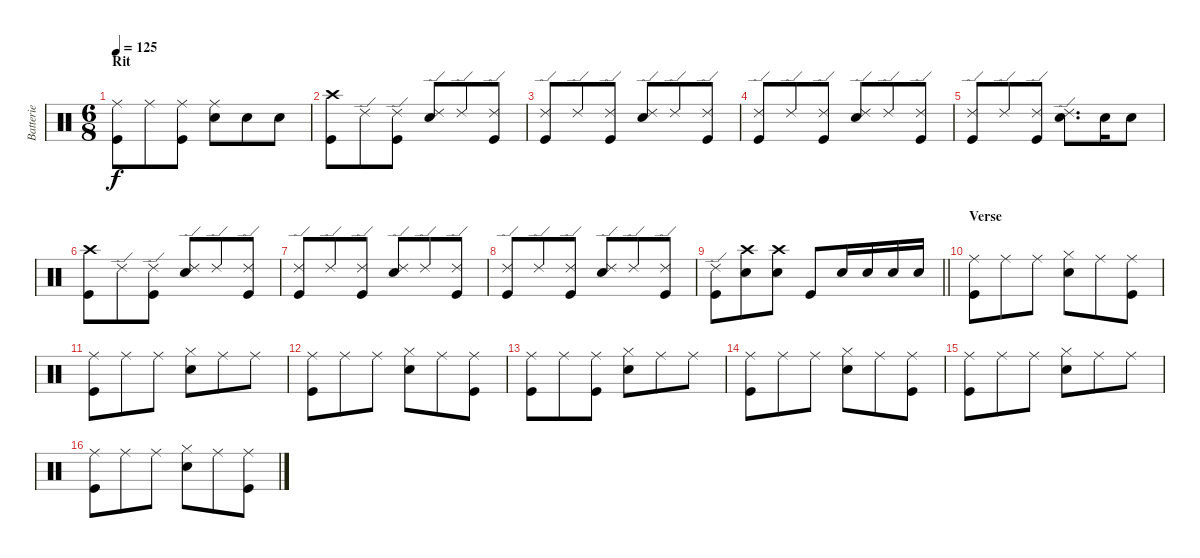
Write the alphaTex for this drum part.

\track ("Batterie" "Batterie") {instrument percussion}
\staff {score}
\articulation defaults
\ts (6 8)
\section ("" "Rit")
\tempo 125
\clef neutral
\ks c
("Ride (middle)" "Kick (hit)").8{dy f} "Ride (middle)".8 ("Ride (middle)" "Kick (hit)").8 ("Ride (middle)" "Snare (hit) 2").8 "Snare (hit) 2".8 "Snare (hit) 2".8 |
("Crash high (hit)" "Kick (hit)").8 "Ride (edge) 2".8 ("Ride (edge) 2" "Kick (hit)").8 ("Ride (edge) 2" "Snare (hit) 2").8 "Ride (edge) 2".8 ("Ride (edge) 2" "Kick (hit)").8 |
("Ride (edge) 2" "Kick (hit)").8 "Ride (edge) 2".8 ("Ride (edge) 2" "Kick (hit)").8 ("Ride (edge) 2" "Snare (hit) 2").8 "Ride (edge) 2".8 ("Ride (edge) 2" "Kick (hit)").8 |
("Ride (edge) 2" "Kick (hit)").8 "Ride (edge) 2".8 ("Ride (edge) 2" "Kick (hit)").8 ("Ride (edge) 2" "Snare (hit) 2").8 "Ride (edge) 2".8 ("Ride (edge) 2" "Kick (hit)").8 |
("Ride (edge) 2" "Kick (hit)").8 "Ride (edge) 2".8 ("Ride (edge) 2" "Kick (hit)").8 ("Ride (edge) 2" "Snare (hit) 2").8{d} "Snare (hit) 2".16 "Snare (hit) 2".8 |
("Crash high (hit)" "Kick (hit)").8 "Ride (edge) 2".8 ("Ride (edge) 2" "Kick (hit)").8 ("Ride (edge) 2" "Snare (hit) 2").8 "Ride (edge) 2".8 ("Ride (edge) 2" "Kick (hit)").8 |
("Ride (edge) 2" "Kick (hit)").8 "Ride (edge) 2".8 ("Ride (edge) 2" "Kick (hit)").8 ("Ride (edge) 2" "Snare (hit) 2").8 "Ride (edge) 2".8 ("Ride (edge) 2" "Kick (hit)").8 |
("Ride (edge) 2" "Kick (hit)").8 "Ride (edge) 2".8 ("Ride (edge) 2" "Kick (hit)").8 ("Ride (edge) 2" "Snare (hit) 2").8 "Ride (edge) 2".8 ("Ride (edge) 2" "Kick (hit)").8 |
\barLineRight lightlight
("Ride (edge) 2" "Kick (hit)").8 ("Crash high (hit)" "Snare (hit) 2").8 ("Crash high (hit)" "Snare (hit) 2").8 "Kick (hit)".8 "Snare (hit) 2".16 "Snare (hit) 2".16 "Snare (hit) 2".16 "Snare (hit) 2".16 |
\section ("" "Verse")
("Ride (middle)" "Kick (hit)").8 "Ride (middle)".8 "Ride (middle)".8 ("Hi-Hat (closed)" "Snare (hit) 2").8 "Ride (middle)".8 ("Ride (middle)" "Kick (hit)").8 |
("Ride (middle)" "Kick (hit)").8 "Ride (middle)".8 "Ride (middle)".8 ("Hi-Hat (closed)" "Snare (hit) 2").8 "Ride (middle)".8 "Ride (middle)".8 |
("Ride (middle)" "Kick (hit)").8 "Ride (middle)".8 "Ride (middle)".8 ("Hi-Hat (closed)" "Snare (hit) 2").8 "Ride (middle)".8 ("Ride (middle)" "Kick (hit)").8 |
("Ride (middle)" "Kick (hit)").8 "Ride (middle)".8 ("Ride (middle)" "Kick (hit)").8 ("Hi-Hat (closed)" "Snare (hit) 2").8 "Ride (middle)".8 "Ride (middle)".8 |
("Ride (middle)" "Kick (hit)").8 "Ride (middle)".8 "Ride (middle)".8 ("Hi-Hat (closed)" "Snare (hit) 2").8 "Ride (middle)".8 ("Ride (middle)" "Kick (hit)").8 |
("Ride (middle)" "Kick (hit)").8 "Ride (middle)".8 "Ride (middle)".8 ("Hi-Hat (closed)" "Snare (hit) 2").8 "Ride (middle)".8 "Ride (middle)".8 |
("Ride (middle)" "Kick (hit)").8 "Ride (middle)".8 "Ride (middle)".8 ("Hi-Hat (closed)" "Snare (hit) 2").8 "Ride (middle)".8 ("Ride (middle)" "Kick (hit)").8
